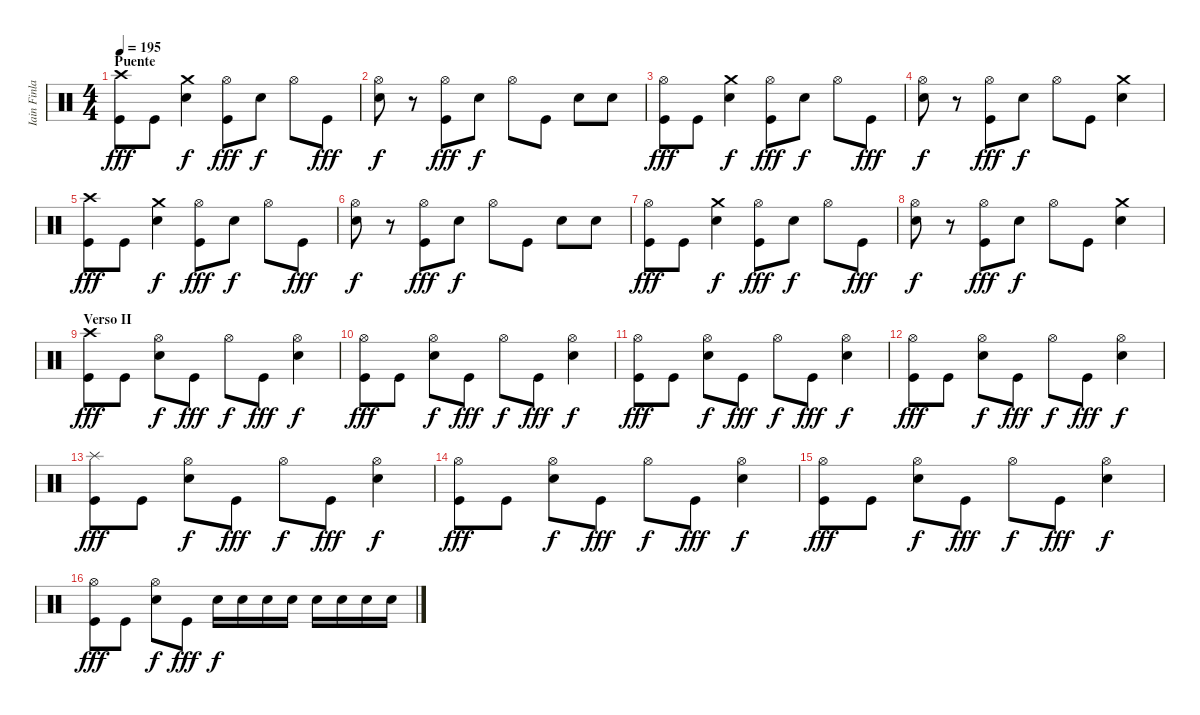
\track ("Iain Finlay (Batería)" "Iain Finla") {instrument percussion}
\staff {score}
\articulation defaults
\ts (4 4)
\section ("" "Puente")
\tempo 195
\clef neutral
\ks c
("Crash high (hit)" "Kick (hit)").8{dy fff} "Kick (hit)".8 ("Crash medium (hit)" "Electric Snare (hit)").4{dy f} ("Hi-Hat (open)" "Kick (hit)").8{dy fff} "Electric Snare (hit)".8{dy f} "Hi-Hat (open)".8 "Kick (hit)".8{dy fff} |
("Hi-Hat (open)" "Electric Snare (hit)").8{dy f} r.8 ("Hi-Hat (open)" "Kick (hit)").8{dy fff} "Electric Snare (hit)".8{dy f} "Hi-Hat (open)".8 "Kick (hit)".8 "Electric Snare (hit)".8 "Electric Snare (hit)".8 |
("Hi-Hat (open)" "Kick (hit)").8{dy fff} "Kick (hit)".8 ("Crash medium (hit)" "Electric Snare (hit)").4{dy f} ("Hi-Hat (open)" "Kick (hit)").8{dy fff} "Electric Snare (hit)".8{dy f} "Hi-Hat (open)".8 "Kick (hit)".8{dy fff} |
("Hi-Hat (open)" "Electric Snare (hit)").8{dy f} r.8 ("Hi-Hat (open)" "Kick (hit)").8{dy fff} "Electric Snare (hit)".8{dy f} "Hi-Hat (open)".8 "Kick (hit)".8 ("Crash medium (hit)" "Electric Snare (hit)").4 |
("Crash high (hit)" "Kick (hit)").8{dy fff} "Kick (hit)".8 ("Crash medium (hit)" "Electric Snare (hit)").4{dy f} ("Hi-Hat (open)" "Kick (hit)").8{dy fff} "Electric Snare (hit)".8{dy f} "Hi-Hat (open)".8 "Kick (hit)".8{dy fff} |
("Hi-Hat (open)" "Electric Snare (hit)").8{dy f} r.8 ("Hi-Hat (open)" "Kick (hit)").8{dy fff} "Electric Snare (hit)".8{dy f} "Hi-Hat (open)".8 "Kick (hit)".8 "Electric Snare (hit)".8 "Electric Snare (hit)".8 |
("Hi-Hat (open)" "Kick (hit)").8{dy fff} "Kick (hit)".8 ("Crash medium (hit)" "Electric Snare (hit)").4{dy f} ("Hi-Hat (open)" "Kick (hit)").8{dy fff} "Electric Snare (hit)".8{dy f} "Hi-Hat (open)".8 "Kick (hit)".8{dy fff} |
("Hi-Hat (open)" "Electric Snare (hit)").8{dy f} r.8 ("Hi-Hat (open)" "Kick (hit)").8{dy fff} "Electric Snare (hit)".8{dy f} "Hi-Hat (open)".8 "Kick (hit)".8 ("Crash medium (hit)" "Electric Snare (hit)").4 |
\section ("" "Verso II")
("Crash high (hit)" "Kick (hit)").8{dy fff} "Kick (hit)".8 ("Hi-Hat (open)" "Electric Snare (hit)").8{dy f} "Kick (hit)".8{dy fff} "Hi-Hat (open)".8{dy f} "Kick (hit)".8{dy fff} ("Hi-Hat (open)" "Electric Snare (hit)").4{dy f} |
("Hi-Hat (open)" "Kick (hit)").8{dy fff} "Kick (hit)".8 ("Hi-Hat (open)" "Electric Snare (hit)").8{dy f} "Kick (hit)".8{dy fff} "Hi-Hat (open)".8{dy f} "Kick (hit)".8{dy fff} ("Hi-Hat (open)" "Electric Snare (hit)").4{dy f} |
("Hi-Hat (open)" "Kick (hit)").8{dy fff} "Kick (hit)".8 ("Hi-Hat (open)" "Electric Snare (hit)").8{dy f} "Kick (hit)".8{dy fff} "Hi-Hat (open)".8{dy f} "Kick (hit)".8{dy fff} ("Hi-Hat (open)" "Electric Snare (hit)").4{dy f} |
("Hi-Hat (open)" "Kick (hit)").8{dy fff} "Kick (hit)".8 ("Hi-Hat (open)" "Electric Snare (hit)").8{dy f} "Kick (hit)".8{dy fff} "Hi-Hat (open)".8{dy f} "Kick (hit)".8{dy fff} ("Hi-Hat (open)" "Electric Snare (hit)").4{dy f} |
("Splash (hit)" "Kick (hit)").8{dy fff} "Kick (hit)".8 ("Hi-Hat (open)" "Electric Snare (hit)").8{dy f} "Kick (hit)".8{dy fff} "Hi-Hat (open)".8{dy f} "Kick (hit)".8{dy fff} ("Hi-Hat (open)" "Electric Snare (hit)").4{dy f} |
("Hi-Hat (open)" "Kick (hit)").8{dy fff} "Kick (hit)".8 ("Hi-Hat (open)" "Electric Snare (hit)").8{dy f} "Kick (hit)".8{dy fff} "Hi-Hat (open)".8{dy f} "Kick (hit)".8{dy fff} ("Hi-Hat (open)" "Electric Snare (hit)").4{dy f} |
("Hi-Hat (open)" "Kick (hit)").8{dy fff} "Kick (hit)".8 ("Hi-Hat (open)" "Electric Snare (hit)").8{dy f} "Kick (hit)".8{dy fff} "Hi-Hat (open)".8{dy f} "Kick (hit)".8{dy fff} ("Hi-Hat (open)" "Electric Snare (hit)").4{dy f} |
("Hi-Hat (open)" "Kick (hit)").8{dy fff} "Kick (hit)".8 ("Hi-Hat (open)" "Electric Snare (hit)").8{dy f} "Kick (hit)".8{dy fff} "Electric Snare (hit)".16{dy f} "Electric Snare (hit)".16 "Electric Snare (hit)".16 "Electric Snare (hit)".16 "Electric Snare (hit)".16 "Electric Snare (hit)".16 "Electric Snare (hit)".16 "Electric Snare (hit)".16
